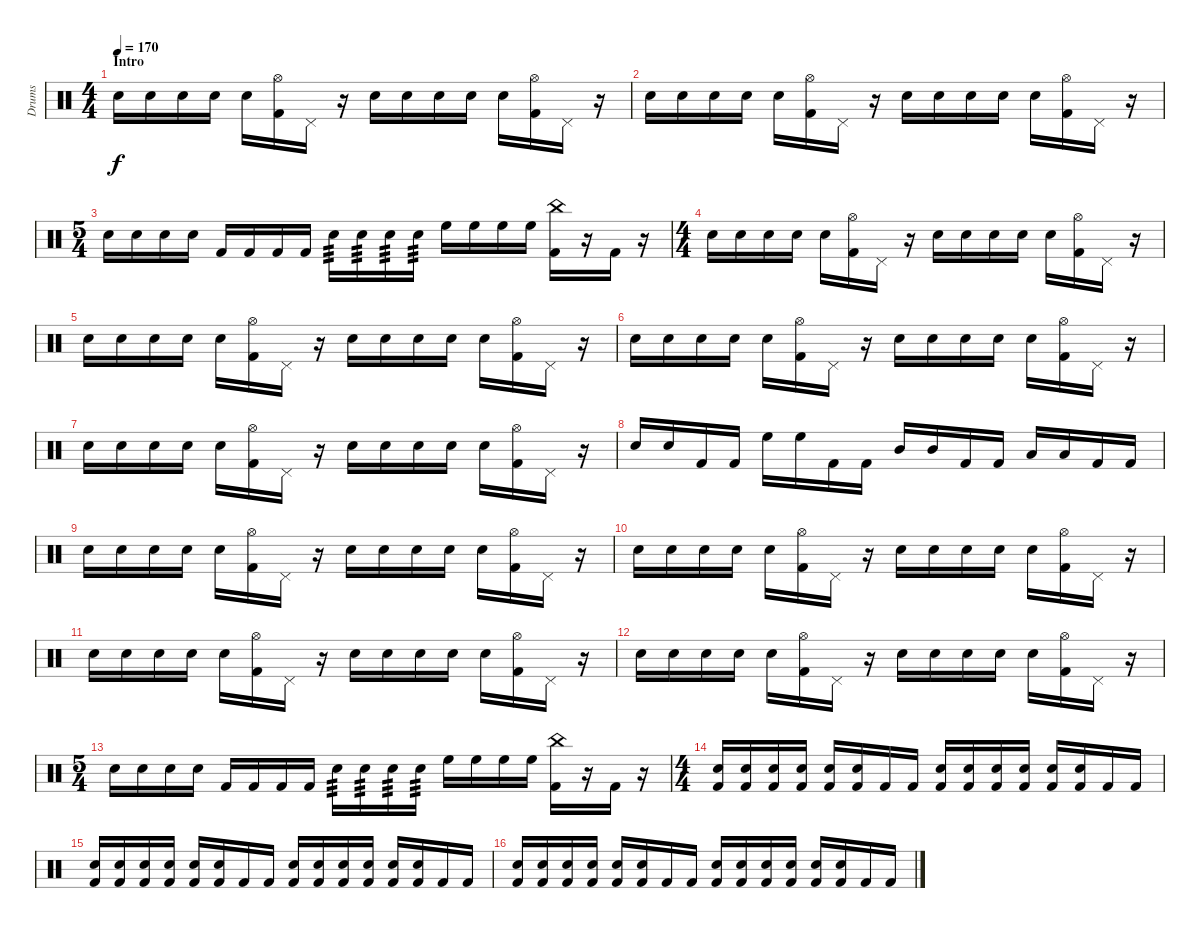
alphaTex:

\track ("Drums" "Drums") {instrument percussion}
\staff {score}
\articulation defaults
\ts (4 4)
\section ("" "Intro")
\tempo 170
\clef neutral
\ks c "Electric Snare (hit)".16{dy f} "Electric Snare (hit)".16 "Electric Snare (hit)".16 "Electric Snare (hit)".16 "Electric Snare (hit)".16
("Hi-Hat (open)" "Kick (hit) 2").16 "Pedal Hi-Hat (hit)".16 r.16 "Electric Snare (hit)".16 "Electric Snare (hit)".16 "Electric Snare (hit)".16 "Electric Snare (hit)".16 "Electric Snare (hit)".16 ("Hi-Hat (open)" "Kick (hit) 2").16 "Pedal Hi-Hat (hit)".16 r.16 |
"Electric Snare (hit)".16 "Electric Snare (hit)".16 "Electric Snare (hit)".16 "Electric Snare (hit)".16 "Electric Snare (hit)".16 ("Hi-Hat (open)" "Kick (hit) 2").16 "Pedal Hi-Hat (hit)".16 r.16 "Electric Snare (hit)".16 "Electric Snare (hit)".16 "Electric Snare (hit)".16 "Electric Snare (hit)".16 "Electric Snare (hit)".16 ("Hi-Hat (open)" "Kick (hit) 2").16 "Pedal Hi-Hat (hit)".16 r.16 |
\ts (5 4)
"Electric Snare (hit)".16 "Electric Snare (hit)".16 "Electric Snare (hit)".16 "Electric Snare (hit)".16 "Kick (hit) 2".16 "Kick (hit) 2".16 "Kick (hit) 2".16 "Kick (hit) 2".16 "Electric Snare (hit)".16{tp 3} "Electric Snare (hit)".16{tp 3} "Electric Snare (hit)".16{tp 3} "Electric Snare (hit)".16{tp 3} "High Floor Tom (hit)".16 "High Floor Tom (hit)".16 "High Floor Tom (hit)".16 "High Floor Tom (hit)".16 ("China (hit)" "Kick (hit) 2").16 r.16 "Kick (hit) 2".16 r.16 |
\ts (4 4)
"Electric Snare (hit)".16 "Electric Snare (hit)".16 "Electric Snare (hit)".16 "Electric Snare (hit)".16 "Electric Snare (hit)".16 ("Hi-Hat (open)" "Kick (hit) 2").16 "Pedal Hi-Hat (hit)".16 r.16 "Electric Snare (hit)".16 "Electric Snare (hit)".16 "Electric Snare (hit)".16 "Electric Snare (hit)".16 "Electric Snare (hit)".16 ("Hi-Hat (open)" "Kick (hit) 2").16 "Pedal Hi-Hat (hit)".16 r.16 |
"Electric Snare (hit)".16 "Electric Snare (hit)".16 "Electric Snare (hit)".16 "Electric Snare (hit)".16 "Electric Snare (hit)".16 ("Hi-Hat (open)" "Kick (hit) 2").16 "Pedal Hi-Hat (hit)".16 r.16 "Electric Snare (hit)".16 "Electric Snare (hit)".16 "Electric Snare (hit)".16 "Electric Snare (hit)".16 "Electric Snare (hit)".16 ("Hi-Hat (open)" "Kick (hit) 2").16 "Pedal Hi-Hat (hit)".16 r.16 |
"Electric Snare (hit)".16 "Electric Snare (hit)".16 "Electric Snare (hit)".16 "Electric Snare (hit)".16 "Electric Snare (hit)".16 ("Hi-Hat (open)" "Kick (hit) 2").16 "Pedal Hi-Hat (hit)".16 r.16 "Electric Snare (hit)".16 "Electric Snare (hit)".16 "Electric Snare (hit)".16 "Electric Snare (hit)".16 "Electric Snare (hit)".16 ("Hi-Hat (open)" "Kick (hit) 2").16 "Pedal Hi-Hat (hit)".16 r.16 |
"Electric Snare (hit)".16 "Electric Snare (hit)".16 "Electric Snare (hit)".16 "Electric Snare (hit)".16 "Electric Snare (hit)".16 ("Hi-Hat (open)" "Kick (hit) 2").16 "Pedal Hi-Hat (hit)".16 r.16 "Electric Snare (hit)".16 "Electric Snare (hit)".16 "Electric Snare (hit)".16 "Electric Snare (hit)".16 "Electric Snare (hit)".16 ("Hi-Hat (open)" "Kick (hit) 2").16 "Pedal Hi-Hat (hit)".16 r.16 |
"Electric Snare (hit)".16 "Electric Snare (hit)".16 "Kick (hit) 2".16 "Kick (hit) 2".16 "High Floor Tom (hit)".16 "High Floor Tom (hit)".16 "Kick (hit) 2".16 "Kick (hit) 2".16 "Mid Tom (hit)".16 "Mid Tom (hit)".16 "Kick (hit) 2".16 "Kick (hit) 2".16 "Low Tom (hit)".16 "Low Tom (hit)".16 "Kick (hit) 2".16 "Kick (hit) 2".16 |
"Electric Snare (hit)".16 "Electric Snare (hit)".16 "Electric Snare (hit)".16 "Electric Snare (hit)".16 "Electric Snare (hit)".16 ("Hi-Hat (open)" "Kick (hit) 2").16 "Pedal Hi-Hat (hit)".16 r.16 "Electric Snare (hit)".16 "Electric Snare (hit)".16 "Electric Snare (hit)".16 "Electric Snare (hit)".16 "Electric Snare (hit)".16 ("Hi-Hat (open)" "Kick (hit) 2").16 "Pedal Hi-Hat (hit)".16 r.16 |
"Electric Snare (hit)".16 "Electric Snare (hit)".16 "Electric Snare (hit)".16 "Electric Snare (hit)".16 "Electric Snare (hit)".16 ("Hi-Hat (open)" "Kick (hit) 2").16 "Pedal Hi-Hat (hit)".16 r.16 "Electric Snare (hit)".16 "Electric Snare (hit)".16 "Electric Snare (hit)".16 "Electric Snare (hit)".16 "Electric Snare (hit)".16 ("Hi-Hat (open)" "Kick (hit) 2").16 "Pedal Hi-Hat (hit)".16 r.16 |
"Electric Snare (hit)".16 "Electric Snare (hit)".16 "Electric Snare (hit)".16 "Electric Snare (hit)".16 "Electric Snare (hit)".16 ("Hi-Hat (open)" "Kick (hit) 2").16 "Pedal Hi-Hat (hit)".16 r.16 "Electric Snare (hit)".16 "Electric Snare (hit)".16 "Electric Snare (hit)".16 "Electric Snare (hit)".16 "Electric Snare (hit)".16 ("Hi-Hat (open)" "Kick (hit) 2").16 "Pedal Hi-Hat (hit)".16 r.16 |
"Electric Snare (hit)".16 "Electric Snare (hit)".16 "Electric Snare (hit)".16 "Electric Snare (hit)".16 "Electric Snare (hit)".16 ("Hi-Hat (open)" "Kick (hit) 2").16 "Pedal Hi-Hat (hit)".16 r.16 "Electric Snare (hit)".16 "Electric Snare (hit)".16 "Electric Snare (hit)".16 "Electric Snare (hit)".16 "Electric Snare (hit)".16 ("Hi-Hat (open)" "Kick (hit) 2").16 "Pedal Hi-Hat (hit)".16 r.16 |
\ts (5 4)
"Electric Snare (hit)".16 "Electric Snare (hit)".16 "Electric Snare (hit)".16 "Electric Snare (hit)".16 "Kick (hit) 2".16 "Kick (hit) 2".16 "Kick (hit) 2".16 "Kick (hit) 2".16 "Electric Snare (hit)".16{tp 3} "Electric Snare (hit)".16{tp 3} "Electric Snare (hit)".16{tp 3} "Electric Snare (hit)".16{tp 3} "High Floor Tom (hit)".16 "High Floor Tom (hit)".16 "High Floor Tom (hit)".16 "High Floor Tom (hit)".16 ("China (hit)" "Kick (hit) 2").16 r.16 "Kick (hit) 2".16 r.16 |
\ts (4 4)
("Electric Snare (hit)" "Kick (hit) 2").16 ("Electric Snare (hit)" "Kick (hit) 2").16 ("Electric Snare (hit)" "Kick (hit) 2").16 ("Electric Snare (hit)" "Kick (hit) 2").16 ("Electric Snare (hit)" "Kick (hit) 2").16 ("Electric Snare (hit)" "Kick (hit) 2").16 "Kick (hit) 2".16 "Kick (hit) 2".16 ("Electric Snare (hit)" "Kick (hit) 2").16 ("Electric Snare (hit)" "Kick (hit) 2").16 ("Electric Snare (hit)" "Kick (hit) 2").16 ("Electric Snare (hit)" "Kick (hit) 2").16 ("Electric Snare (hit)" "Kick (hit) 2").16 ("Electric Snare (hit)" "Kick (hit) 2").16 "Kick (hit) 2".16 "Kick (hit) 2".16 |
("Electric Snare (hit)" "Kick (hit) 2").16 ("Electric Snare (hit)" "Kick (hit) 2").16 ("Electric Snare (hit)" "Kick (hit) 2").16 ("Electric Snare (hit)" "Kick (hit) 2").16 ("Electric Snare (hit)" "Kick (hit) 2").16 ("Electric Snare (hit)" "Kick (hit) 2").16 "Kick (hit) 2".16 "Kick (hit) 2".16 ("Electric Snare (hit)" "Kick (hit) 2").16 ("Electric Snare (hit)" "Kick (hit) 2").16 ("Electric Snare (hit)" "Kick (hit) 2").16 ("Electric Snare (hit)" "Kick (hit) 2").16 ("Electric Snare (hit)" "Kick (hit) 2").16 ("Electric Snare (hit)" "Kick (hit) 2").16 "Kick (hit) 2".16 "Kick (hit) 2".16 |
("Electric Snare (hit)" "Kick (hit) 2").16 ("Electric Snare (hit)" "Kick (hit) 2").16 ("Electric Snare (hit)" "Kick (hit) 2").16 ("Electric Snare (hit)" "Kick (hit) 2").16 ("Electric Snare (hit)" "Kick (hit) 2").16 ("Electric Snare (hit)" "Kick (hit) 2").16 "Kick (hit) 2".16 "Kick (hit) 2".16 ("Electric Snare (hit)" "Kick (hit) 2").16 ("Electric Snare (hit)" "Kick (hit) 2").16 ("Electric Snare (hit)" "Kick (hit) 2").16 ("Electric Snare (hit)" "Kick (hit) 2").16 ("Electric Snare (hit)" "Kick (hit) 2").16 ("Electric Snare (hit)" "Kick (hit) 2").16 "Kick (hit) 2".16 "Kick (hit) 2".16
